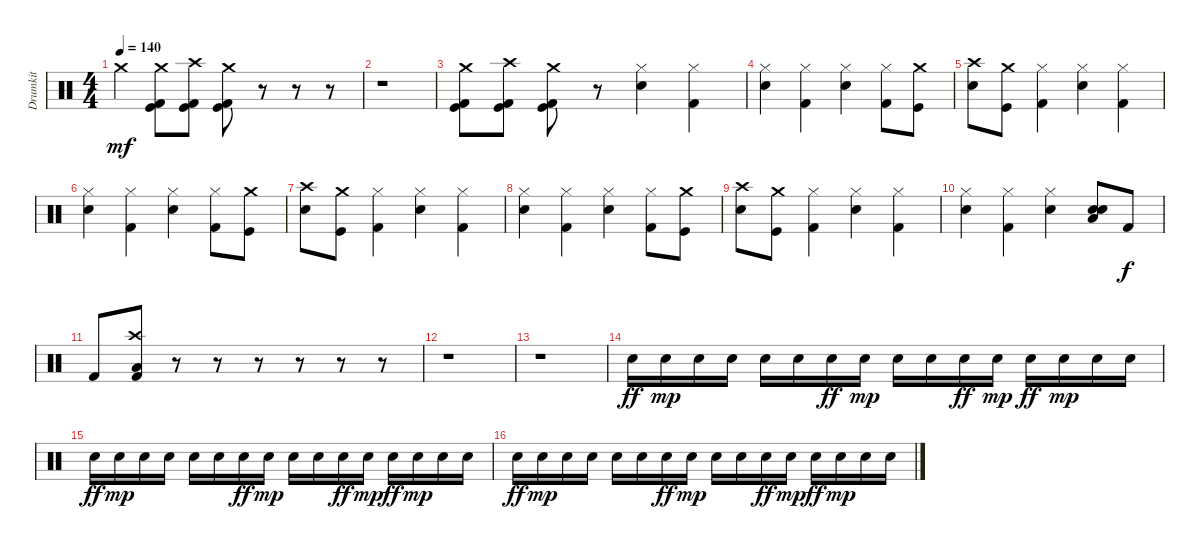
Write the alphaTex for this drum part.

\track ("Drumkit" "Drumkit") {instrument percussion}
\staff {score}
\articulation defaults
\ts (4 4)
\tempo 140
\clef neutral
\ks c "Crash medium (hit)"{t}.4{dy mf}
("Crash medium (hit)" "Kick (hit) 2" "Kick (hit)").8 ("Crash high (hit)" "Kick (hit) 2" "Kick (hit)").8 ("Crash medium (hit)" "Kick (hit) 2" "Kick (hit)").8 r.8 r.8 r.8 |
r.1 |
("Crash medium (hit)" "Kick (hit) 2" "Kick (hit)").8 ("Crash high (hit)" "Kick (hit) 2" "Kick (hit)").8 ("Crash medium (hit)" "Kick (hit) 2" "Kick (hit)").8 r.8 ("Hi-Hat (closed)" "Snare (hit) 2").4 ("Hi-Hat (closed)" "Kick (hit) 2").4 |
("Hi-Hat (closed)" "Snare (hit) 2").4 ("Hi-Hat (closed)" "Kick (hit) 2").4 ("Hi-Hat (closed)" "Snare (hit) 2").4 ("Hi-Hat (closed)" "Kick (hit) 2").8 ("Crash medium (hit)" "Kick (hit)").8 |
("Crash high (hit)" "Snare (hit) 2").8 ("Crash medium (hit)" "Kick (hit)").8 ("Hi-Hat (closed)" "Kick (hit) 2").4 ("Hi-Hat (closed)" "Snare (hit) 2").4 ("Hi-Hat (closed)" "Kick (hit) 2").4 |
("Hi-Hat (closed)" "Snare (hit) 2").4 ("Hi-Hat (closed)" "Kick (hit) 2").4 ("Hi-Hat (closed)" "Snare (hit) 2").4 ("Hi-Hat (closed)" "Kick (hit) 2").8 ("Crash medium (hit)" "Kick (hit)").8 |
("Crash high (hit)" "Snare (hit) 2").8 ("Crash medium (hit)" "Kick (hit)").8 ("Hi-Hat (closed)" "Kick (hit) 2").4 ("Hi-Hat (closed)" "Snare (hit) 2").4 ("Hi-Hat (closed)" "Kick (hit) 2").4 |
("Hi-Hat (closed)" "Snare (hit) 2").4 ("Hi-Hat (closed)" "Kick (hit) 2").4 ("Hi-Hat (closed)" "Snare (hit) 2").4 ("Hi-Hat (closed)" "Kick (hit) 2").8 ("Crash medium (hit)" "Kick (hit)").8 |
("Crash high (hit)" "Snare (hit) 2").8 ("Crash medium (hit)" "Kick (hit)").8 ("Hi-Hat (closed)" "Kick (hit) 2").4 ("Hi-Hat (closed)" "Snare (hit) 2").4 ("Hi-Hat (closed)" "Kick (hit) 2").4 |
("Hi-Hat (closed)" "Snare (hit) 2").4 ("Hi-Hat (closed)" "Kick (hit) 2").4 ("Hi-Hat (closed)" "Snare (hit) 2").4 ("Low Tom (hit)" "Electric Snare (hit)" "Snare (hit) 2").8 "Kick (hit) 2".8{dy f} |
"Kick (hit) 2".8 ("Kick (hit) 2" "Crash high (hit)" "Low Tom (hit)").8 r.8 r.8 r.8 r.8 r.8 r.8 |
r.1 |
r.1 |
"Snare (hit) 2".16{dy ff} "Snare (hit) 2".16{dy mp} "Snare (hit) 2".16 "Snare (hit) 2".16 "Snare (hit) 2".16 "Snare (hit) 2".16 "Snare (hit) 2".16{dy ff} "Snare (hit) 2".16{dy mp} "Snare (hit) 2".16 "Snare (hit) 2".16 "Snare (hit) 2".16{dy ff} "Snare (hit) 2".16{dy mp} "Snare (hit) 2".16{dy ff} "Snare (hit) 2".16{dy mp} "Snare (hit) 2".16 "Snare (hit) 2".16 |
"Snare (hit) 2".16{dy ff} "Snare (hit) 2".16{dy mp} "Snare (hit) 2".16 "Snare (hit) 2".16 "Snare (hit) 2".16 "Snare (hit) 2".16 "Snare (hit) 2".16{dy ff} "Snare (hit) 2".16{dy mp} "Snare (hit) 2".16 "Snare (hit) 2".16 "Snare (hit) 2".16{dy ff} "Snare (hit) 2".16{dy mp} "Snare (hit) 2".16{dy ff} "Snare (hit) 2".16{dy mp} "Snare (hit) 2".16 "Snare (hit) 2".16 |
"Snare (hit) 2".16{dy ff} "Snare (hit) 2".16{dy mp} "Snare (hit) 2".16 "Snare (hit) 2".16 "Snare (hit) 2".16 "Snare (hit) 2".16 "Snare (hit) 2".16{dy ff} "Snare (hit) 2".16{dy mp} "Snare (hit) 2".16 "Snare (hit) 2".16 "Snare (hit) 2".16{dy ff} "Snare (hit) 2".16{dy mp} "Snare (hit) 2".16{dy ff} "Snare (hit) 2".16{dy mp} "Snare (hit) 2".16 "Snare (hit) 2".16
